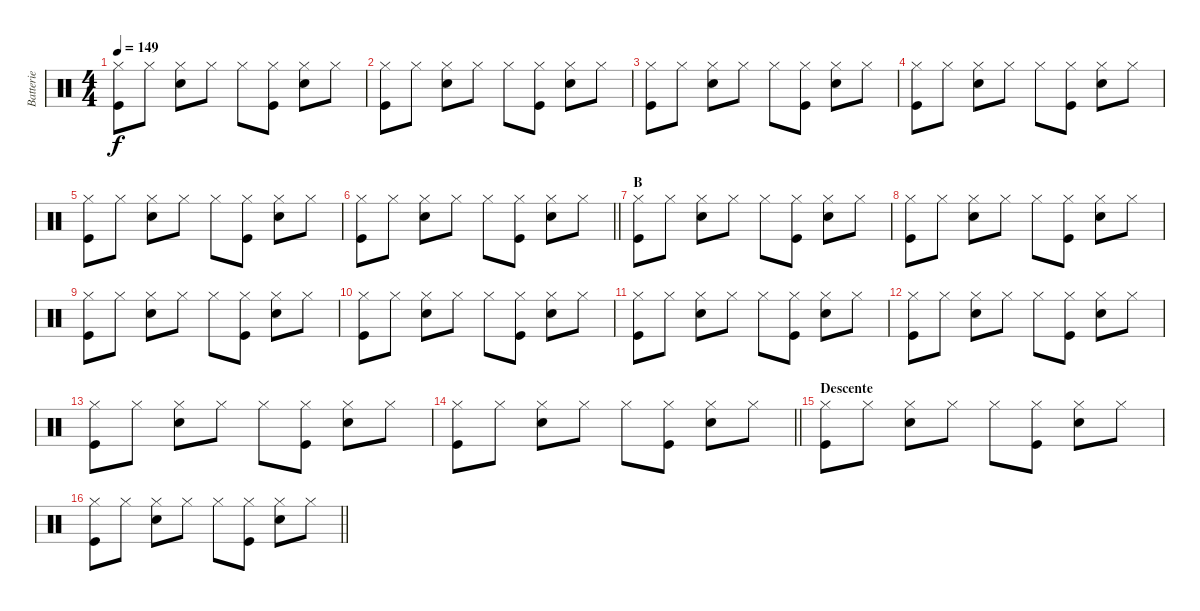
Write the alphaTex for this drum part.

\track ("Batterie" "Batterie") {instrument percussion}
\staff {score}
\articulation defaults
\ts (4 4)
\tempo 149
\clef neutral
\ks c
("Hi-Hat (closed)" "Kick (hit)").8{dy f} "Hi-Hat (closed)".8 ("Hi-Hat (closed)" "Snare (hit) 2").8 "Hi-Hat (closed)".8 "Hi-Hat (closed)".8 ("Hi-Hat (closed)" "Kick (hit)").8 ("Hi-Hat (closed)" "Snare (hit) 2").8 "Hi-Hat (closed)".8 |
("Hi-Hat (closed)" "Kick (hit)").8 "Hi-Hat (closed)".8 ("Hi-Hat (closed)" "Snare (hit) 2").8 "Hi-Hat (closed)".8 "Hi-Hat (closed)".8 ("Hi-Hat (closed)" "Kick (hit)").8 ("Hi-Hat (closed)" "Snare (hit) 2").8 "Hi-Hat (closed)".8 |
("Hi-Hat (closed)" "Kick (hit)").8 "Hi-Hat (closed)".8 ("Hi-Hat (closed)" "Snare (hit) 2").8 "Hi-Hat (closed)".8 "Hi-Hat (closed)".8 ("Hi-Hat (closed)" "Kick (hit)").8 ("Hi-Hat (closed)" "Snare (hit) 2").8 "Hi-Hat (closed)".8 |
("Hi-Hat (closed)" "Kick (hit)").8 "Hi-Hat (closed)".8 ("Hi-Hat (closed)" "Snare (hit) 2").8 "Hi-Hat (closed)".8 "Hi-Hat (closed)".8 ("Hi-Hat (closed)" "Kick (hit)").8 ("Hi-Hat (closed)" "Snare (hit) 2").8 "Hi-Hat (closed)".8 |
("Hi-Hat (closed)" "Kick (hit)").8 "Hi-Hat (closed)".8 ("Hi-Hat (closed)" "Snare (hit) 2").8 "Hi-Hat (closed)".8 "Hi-Hat (closed)".8 ("Hi-Hat (closed)" "Kick (hit)").8 ("Hi-Hat (closed)" "Snare (hit) 2").8 "Hi-Hat (closed)".8 |
\barLineRight lightlight
("Hi-Hat (closed)" "Kick (hit)").8 "Hi-Hat (closed)".8 ("Hi-Hat (closed)" "Snare (hit) 2").8 "Hi-Hat (closed)".8 "Hi-Hat (closed)".8 ("Hi-Hat (closed)" "Kick (hit)").8 ("Hi-Hat (closed)" "Snare (hit) 2").8 "Hi-Hat (closed)".8 |
\section ("" "B")
("Hi-Hat (closed)" "Kick (hit)").8 "Hi-Hat (closed)".8 ("Hi-Hat (closed)" "Snare (hit) 2").8 "Hi-Hat (closed)".8 "Hi-Hat (closed)".8 ("Hi-Hat (closed)" "Kick (hit)").8 ("Hi-Hat (closed)" "Snare (hit) 2").8 "Hi-Hat (closed)".8 |
("Hi-Hat (closed)" "Kick (hit)").8 "Hi-Hat (closed)".8 ("Hi-Hat (closed)" "Snare (hit) 2").8 "Hi-Hat (closed)".8 "Hi-Hat (closed)".8 ("Hi-Hat (closed)" "Kick (hit)").8 ("Hi-Hat (closed)" "Snare (hit) 2").8 "Hi-Hat (closed)".8 |
("Hi-Hat (closed)" "Kick (hit)").8 "Hi-Hat (closed)".8 ("Hi-Hat (closed)" "Snare (hit) 2").8 "Hi-Hat (closed)".8 "Hi-Hat (closed)".8 ("Hi-Hat (closed)" "Kick (hit)").8 ("Hi-Hat (closed)" "Snare (hit) 2").8 "Hi-Hat (closed)".8 |
("Hi-Hat (closed)" "Kick (hit)").8 "Hi-Hat (closed)".8 ("Hi-Hat (closed)" "Snare (hit) 2").8 "Hi-Hat (closed)".8 "Hi-Hat (closed)".8 ("Hi-Hat (closed)" "Kick (hit)").8 ("Hi-Hat (closed)" "Snare (hit) 2").8 "Hi-Hat (closed)".8 |
("Hi-Hat (closed)" "Kick (hit)").8 "Hi-Hat (closed)".8 ("Hi-Hat (closed)" "Snare (hit) 2").8 "Hi-Hat (closed)".8 "Hi-Hat (closed)".8 ("Hi-Hat (closed)" "Kick (hit)").8 ("Hi-Hat (closed)" "Snare (hit) 2").8 "Hi-Hat (closed)".8 |
("Hi-Hat (closed)" "Kick (hit)").8 "Hi-Hat (closed)".8 ("Hi-Hat (closed)" "Snare (hit) 2").8 "Hi-Hat (closed)".8 "Hi-Hat (closed)".8 ("Hi-Hat (closed)" "Kick (hit)").8 ("Hi-Hat (closed)" "Snare (hit) 2").8 "Hi-Hat (closed)".8 |
("Hi-Hat (closed)" "Kick (hit)").8 "Hi-Hat (closed)".8 ("Hi-Hat (closed)" "Snare (hit) 2").8 "Hi-Hat (closed)".8 "Hi-Hat (closed)".8 ("Hi-Hat (closed)" "Kick (hit)").8 ("Hi-Hat (closed)" "Snare (hit) 2").8 "Hi-Hat (closed)".8 |
\barLineRight lightlight
("Hi-Hat (closed)" "Kick (hit)").8 "Hi-Hat (closed)".8 ("Hi-Hat (closed)" "Snare (hit) 2").8 "Hi-Hat (closed)".8 "Hi-Hat (closed)".8 ("Hi-Hat (closed)" "Kick (hit)").8 ("Hi-Hat (closed)" "Snare (hit) 2").8 "Hi-Hat (closed)".8 |
\section ("" "Descente")
("Hi-Hat (closed)" "Kick (hit)").8 "Hi-Hat (closed)".8 ("Hi-Hat (closed)" "Snare (hit) 2").8 "Hi-Hat (closed)".8 "Hi-Hat (closed)".8 ("Hi-Hat (closed)" "Kick (hit)").8 ("Hi-Hat (closed)" "Snare (hit) 2").8 "Hi-Hat (closed)".8 |
\barLineRight lightlight
("Hi-Hat (closed)" "Kick (hit)").8 "Hi-Hat (closed)".8 ("Hi-Hat (closed)" "Snare (hit) 2").8 "Hi-Hat (closed)".8 "Hi-Hat (closed)".8 ("Hi-Hat (closed)" "Kick (hit)").8 ("Hi-Hat (closed)" "Snare (hit) 2").8 "Hi-Hat (closed)".8
